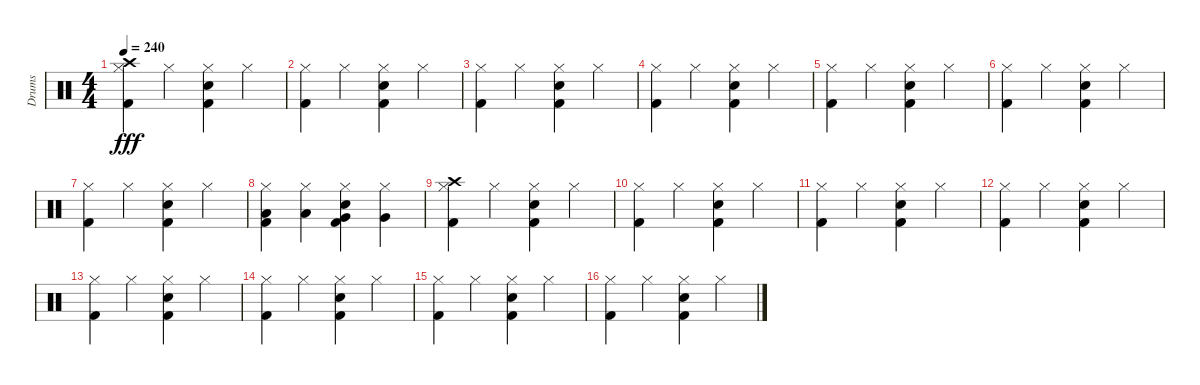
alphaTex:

\track ("Drums" "Drums") {instrument percussion}
\staff {score}
\articulation defaults
\ts (4 4)
\tempo 240
\clef neutral
\ks c
("Crash high (hit)" "Hi-Hat (closed)" "Kick (hit) 2").4{dy fff volume 12 balance 8} "Hi-Hat (closed)".4 ("Hi-Hat (closed)" "Kick (hit) 2" "Snare (hit) 2").4 "Hi-Hat (closed)".4 |
("Hi-Hat (closed)" "Kick (hit) 2").4 "Hi-Hat (closed)".4 ("Hi-Hat (closed)" "Kick (hit) 2" "Snare (hit) 2").4 "Hi-Hat (closed)".4 |
("Hi-Hat (closed)" "Kick (hit) 2").4 "Hi-Hat (closed)".4 ("Hi-Hat (closed)" "Snare (hit) 2" "Kick (hit) 2").4 "Hi-Hat (closed)".4 |
("Hi-Hat (closed)" "Kick (hit) 2").4 "Hi-Hat (closed)".4 ("Hi-Hat (closed)" "Kick (hit) 2" "Snare (hit) 2").4 "Hi-Hat (closed)".4 |
("Hi-Hat (closed)" "Kick (hit) 2").4 "Hi-Hat (closed)".4 ("Hi-Hat (closed)" "Kick (hit) 2" "Snare (hit) 2").4 "Hi-Hat (closed)".4 |
("Hi-Hat (closed)" "Kick (hit) 2").4 "Hi-Hat (closed)".4 ("Hi-Hat (closed)" "Snare (hit) 2" "Kick (hit) 2").4 "Hi-Hat (closed)".4 |
("Hi-Hat (closed)" "Kick (hit) 2").4 "Hi-Hat (closed)".4 ("Hi-Hat (closed)" "Kick (hit) 2" "Snare (hit) 2").4 "Hi-Hat (closed)".4 |
("Low Tom (hit)" "Hi-Hat (closed)" "Kick (hit) 2").4 ("Low Floor Tom (hit)" "Hi-Hat (closed)").4 ("Very Low Tom (hit)" "Hi-Hat (closed)" "Kick (hit) 2" "Snare (hit) 2").4 ("Very Low Tom (hit)" "Hi-Hat (closed)").4 |
("Crash high (hit)" "Kick (hit) 2" "Hi-Hat (closed)").4 "Hi-Hat (closed)".4 ("Kick (hit) 2" "Snare (hit) 2" "Hi-Hat (closed)").4 "Hi-Hat (closed)".4 |
("Kick (hit) 2" "Hi-Hat (closed)").4 "Hi-Hat (closed)".4 ("Snare (hit) 2" "Kick (hit) 2" "Hi-Hat (closed)").4 "Hi-Hat (closed)".4 |
("Kick (hit) 2" "Hi-Hat (closed)").4 "Hi-Hat (closed)".4 ("Snare (hit) 2" "Hi-Hat (closed)" "Kick (hit) 2").4 "Hi-Hat (closed)".4 |
("Kick (hit) 2" "Hi-Hat (closed)").4 "Hi-Hat (closed)".4 ("Snare (hit) 2" "Kick (hit) 2" "Hi-Hat (closed)").4 "Hi-Hat (closed)".4 |
("Kick (hit) 2" "Hi-Hat (closed)").4 "Hi-Hat (closed)".4 ("Kick (hit) 2" "Snare (hit) 2" "Hi-Hat (closed)").4 "Hi-Hat (closed)".4 |
("Kick (hit) 2" "Hi-Hat (closed)").4 "Hi-Hat (closed)".4 ("Hi-Hat (closed)" "Snare (hit) 2" "Kick (hit) 2").4 "Hi-Hat (closed)".4 |
("Kick (hit) 2" "Hi-Hat (closed)").4 "Hi-Hat (closed)".4 ("Kick (hit) 2" "Hi-Hat (closed)" "Snare (hit) 2").4 "Hi-Hat (closed)".4 |
("Kick (hit) 2" "Hi-Hat (closed)").4 "Hi-Hat (closed)".4 ("Snare (hit) 2" "Kick (hit) 2" "Hi-Hat (closed)").4 "Hi-Hat (closed)".4
